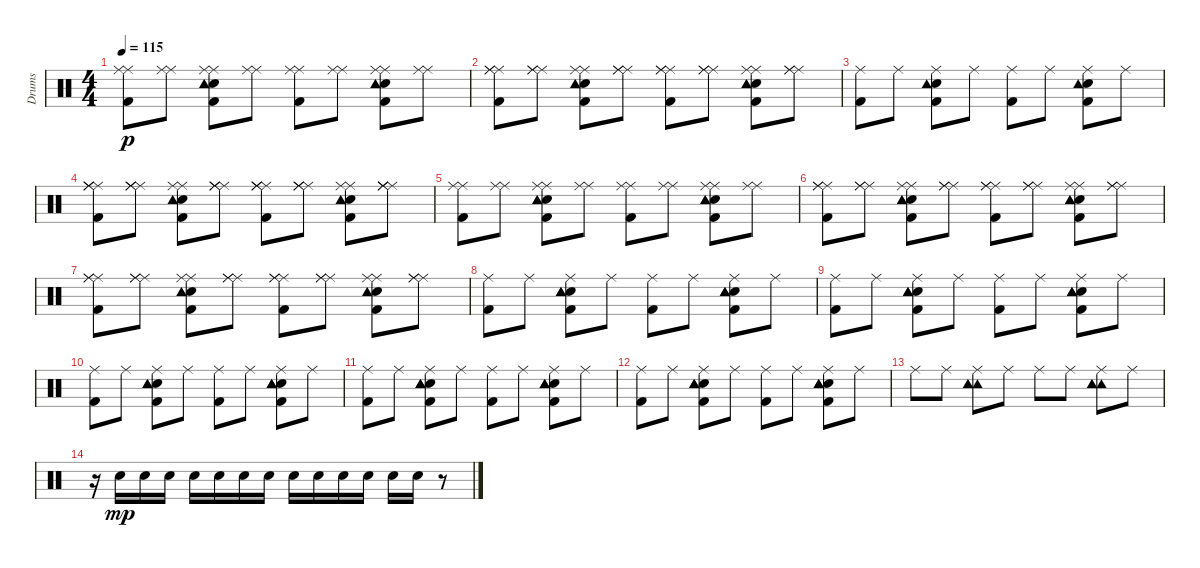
\track ("Drums" "Drums") {instrument percussion}
\staff {score}
\articulation defaults
\ts (4 4)
\tempo 115
\clef neutral
\ks c
("Kick (hit) 2" "Ride (middle)" "Ride (middle)").8{dy p} ("Ride (middle)" "Ride (middle)").8 ("Kick (hit) 2" "Snare (hit) 2" "Ride (middle)" "Tambourine (hit)" "Ride (middle)" "Tambourine (hit)").8 ("Ride (middle)" "Ride (middle)").8 ("Kick (hit) 2" "Ride (middle)" "Ride (middle)").8 ("Ride (middle)" "Ride (middle)").8 ("Kick (hit) 2" "Snare (hit) 2" "Ride (middle)" "Tambourine (hit)" "Ride (middle)" "Tambourine (hit)").8 ("Ride (middle)" "Ride (middle)").8 |
("Kick (hit) 2" "Ride (middle)" "Ride (middle)" "Ride (middle)").8 ("Ride (middle)" "Ride (middle)" "Ride (middle)").8 ("Snare (hit) 2" "Kick (hit) 2" "Ride (middle)" "Tambourine (hit)" "Ride (middle)" "Tambourine (hit)").8 ("Ride (middle)" "Ride (middle)" "Ride (middle)").8 ("Kick (hit) 2" "Ride (middle)" "Ride (middle)" "Ride (middle)").8 ("Ride (middle)" "Ride (middle)" "Ride (middle)").8 ("Snare (hit) 2" "Kick (hit) 2" "Ride (middle)" "Tambourine (hit)" "Ride (middle)" "Tambourine (hit)").8 ("Ride (middle)" "Ride (middle)" "Ride (middle)").8 |
("Kick (hit) 2" "Ride (middle)").8 "Ride (middle)".8 ("Kick (hit) 2" "Snare (hit) 2" "Tambourine (hit)" "Ride (middle)").8 "Ride (middle)".8 ("Kick (hit) 2" "Ride (middle)").8 "Ride (middle)".8 ("Kick (hit) 2" "Snare (hit) 2" "Tambourine (hit)" "Ride (middle)").8 "Ride (middle)".8 |
("Kick (hit) 2" "Ride (middle)" "Ride (middle)" "Ride (middle)" "Ride (middle)").8 ("Ride (middle)" "Ride (middle)" "Ride (middle)" "Ride (middle)").8 ("Snare (hit) 2" "Kick (hit) 2" "Ride (middle)" "Tambourine (hit)" "Tambourine (hit)" "Ride (middle)").8 ("Ride (middle)" "Ride (middle)" "Ride (middle)" "Ride (middle)").8 ("Kick (hit) 2" "Ride (middle)" "Ride (middle)" "Ride (middle)" "Ride (middle)").8 ("Ride (middle)" "Ride (middle)" "Ride (middle)" "Ride (middle)").8 ("Snare (hit) 2" "Kick (hit) 2" "Ride (middle)" "Tambourine (hit)" "Tambourine (hit)" "Ride (middle)").8 ("Ride (middle)" "Ride (middle)" "Ride (middle)" "Ride (middle)").8 |
("Kick (hit) 2" "Ride (middle)" "Ride (middle)").8 ("Ride (middle)" "Ride (middle)").8 ("Kick (hit) 2" "Snare (hit) 2" "Ride (middle)" "Tambourine (hit)" "Ride (middle)" "Tambourine (hit)").8 ("Ride (middle)" "Ride (middle)").8 ("Kick (hit) 2" "Ride (middle)" "Ride (middle)").8 ("Ride (middle)" "Ride (middle)").8 ("Kick (hit) 2" "Snare (hit) 2" "Ride (middle)" "Tambourine (hit)" "Ride (middle)" "Tambourine (hit)").8 ("Ride (middle)" "Ride (middle)").8 |
("Kick (hit) 2" "Ride (middle)" "Ride (middle)" "Ride (middle)").8 ("Ride (middle)" "Ride (middle)" "Ride (middle)").8 ("Snare (hit) 2" "Kick (hit) 2" "Ride (middle)" "Tambourine (hit)" "Ride (middle)" "Tambourine (hit)").8 ("Ride (middle)" "Ride (middle)" "Ride (middle)").8 ("Kick (hit) 2" "Ride (middle)" "Ride (middle)" "Ride (middle)").8 ("Ride (middle)" "Ride (middle)" "Ride (middle)").8 ("Snare (hit) 2" "Kick (hit) 2" "Ride (middle)" "Tambourine (hit)" "Ride (middle)" "Tambourine (hit)").8 ("Ride (middle)" "Ride (middle)" "Ride (middle)").8 |
("Kick (hit) 2" "Ride (middle)" "Ride (middle)" "Ride (middle)").8 ("Ride (middle)" "Ride (middle)" "Ride (middle)").8 ("Kick (hit) 2" "Snare (hit) 2" "Ride (middle)" "Tambourine (hit)" "Tambourine (hit)" "Ride (middle)").8 ("Ride (middle)" "Ride (middle)" "Ride (middle)").8 ("Kick (hit) 2" "Ride (middle)" "Ride (middle)" "Ride (middle)").8 ("Ride (middle)" "Ride (middle)" "Ride (middle)").8 ("Kick (hit) 2" "Snare (hit) 2" "Ride (middle)" "Tambourine (hit)" "Tambourine (hit)" "Ride (middle)").8 ("Ride (middle)" "Ride (middle)" "Ride (middle)").8 |
("Kick (hit) 2" "Ride (middle)").8 "Ride (middle)".8 ("Snare (hit) 2" "Kick (hit) 2" "Tambourine (hit)" "Tambourine (hit)" "Tambourine (hit)" "Ride (middle)").8 "Ride (middle)".8 ("Kick (hit) 2" "Ride (middle)").8 "Ride (middle)".8 ("Snare (hit) 2" "Kick (hit) 2" "Tambourine (hit)" "Tambourine (hit)" "Tambourine (hit)" "Ride (middle)").8 "Ride (middle)".8 |
("Kick (hit) 2" "Ride (middle)").8 "Ride (middle)".8 ("Kick (hit) 2" "Snare (hit) 2" "Ride (middle)" "Tambourine (hit)" "Tambourine (hit)" "Tambourine (hit)").8 "Ride (middle)".8 ("Kick (hit) 2" "Ride (middle)").8 "Ride (middle)".8 ("Kick (hit) 2" "Snare (hit) 2" "Ride (middle)" "Tambourine (hit)" "Tambourine (hit)" "Tambourine (hit)").8 "Ride (middle)".8 |
("Kick (hit) 2" "Ride (middle)").8 "Ride (middle)".8 ("Snare (hit) 2" "Kick (hit) 2" "Ride (middle)" "Tambourine (hit)" "Tambourine (hit)" "Tambourine (hit)").8 "Ride (middle)".8 ("Kick (hit) 2" "Ride (middle)").8 "Ride (middle)".8 ("Snare (hit) 2" "Kick (hit) 2" "Ride (middle)" "Tambourine (hit)" "Tambourine (hit)" "Tambourine (hit)").8 "Ride (middle)".8 |
("Kick (hit) 2" "Ride (middle)").8 "Ride (middle)".8 ("Kick (hit) 2" "Snare (hit) 2" "Ride (middle)" "Tambourine (hit)" "Tambourine (hit)" "Tambourine (hit)").8 "Ride (middle)".8 ("Kick (hit) 2" "Ride (middle)").8 "Ride (middle)".8 ("Kick (hit) 2" "Snare (hit) 2" "Ride (middle)" "Tambourine (hit)" "Tambourine (hit)" "Tambourine (hit)").8 "Ride (middle)".8 |
("Kick (hit) 2" "Ride (middle)").8 "Ride (middle)".8 ("Snare (hit) 2" "Kick (hit) 2" "Ride (middle)" "Tambourine (hit)" "Tambourine (hit)" "Tambourine (hit)").8 "Ride (middle)".8 ("Kick (hit) 2" "Ride (middle)").8 "Ride (middle)".8 ("Snare (hit) 2" "Kick (hit) 2" "Ride (middle)" "Tambourine (hit)" "Tambourine (hit)" "Tambourine (hit)").8 "Ride (middle)".8 |
"Ride (middle)".8 "Ride (middle)".8 ("Ride (middle)" "Tambourine (hit)" "Tambourine (hit)" "Tambourine (hit)").8 "Ride (middle)".8 "Ride (middle)".8 "Ride (middle)".8 ("Ride (middle)" "Tambourine (hit)" "Tambourine (hit)" "Tambourine (hit)").8 "Ride (middle)".8 |
r.16 "Snare (hit) 2".16{dy mp} "Snare (hit) 2".16 "Snare (hit) 2".16 "Snare (hit) 2".16 "Snare (hit) 2".16 "Snare (hit) 2".16 "Snare (hit) 2".16 "Snare (hit) 2".16 "Snare (hit) 2".16 "Snare (hit) 2".16 "Snare (hit) 2".16 "Snare (hit) 2".16 "Snare (hit) 2".16 r.8
